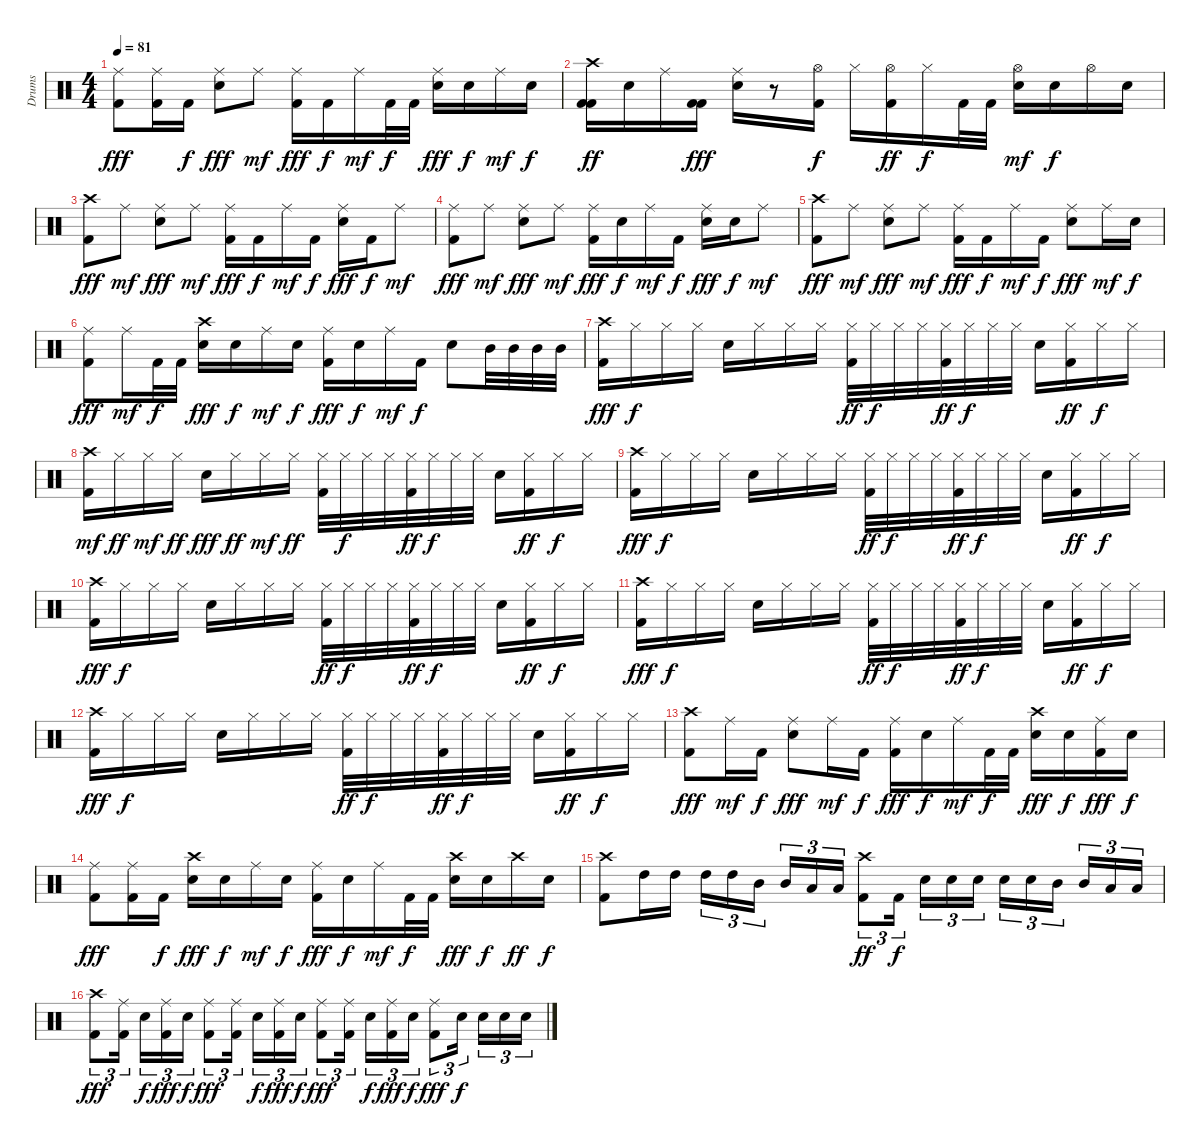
\track ("Drums" "Drums") {instrument percussion}
\staff {score}
\articulation defaults
\ts (4 4)
\tempo 81
\clef neutral
\ks c
("Ride (middle)" "Kick (hit) 2").8{dy fff} ("Ride (middle)" "Kick (hit) 2").16 "Kick (hit) 2".16{dy f} ("Ride (middle)" "Electric Snare (hit)").8{dy fff} "Ride (middle)".8{dy mf} ("Ride (middle)" "Kick (hit) 2").16{dy fff} "Kick (hit) 2".16{dy f} "Ride (middle)".16{dy mf} "Kick (hit) 2".32{dy f} "Kick (hit) 2".32 ("Ride (middle)" "Electric Snare (hit)").16{dy fff} "Electric Snare (hit)".16{dy f} "Ride (middle)".16{dy mf} "Electric Snare (hit)".16{dy f} |
("Kick (hit) 2" "Crash high (hit)" "Kick (hit) 2").16{dy ff} "Electric Snare (hit)".16 "Ride (middle)".16 ("Kick (hit) 2" "Kick (hit) 2").16{dy fff} ("Ride (middle)" "Electric Snare (hit)").16 r.8 ("Hi-Hat (open)" "Kick (hit) 2").16{dy f} "Hi-Hat (closed)".16 ("Hi-Hat (open)" "Kick (hit) 2").16{dy ff} "Hi-Hat (closed)".16{dy f} "Kick (hit) 2".32 "Kick (hit) 2".32 ("Hi-Hat (open)" "Electric Snare (hit)").16{dy mf} "Electric Snare (hit)".16{dy f} "Hi-Hat (open)".16 "Electric Snare (hit)".16 |
("Crash high (hit)" "Kick (hit) 2").8{dy fff} "Ride (middle)".8{dy mf} ("Ride (middle)" "Electric Snare (hit)").8{dy fff} "Ride (middle)".8{dy mf} ("Ride (middle)" "Kick (hit) 2").16{dy fff} "Kick (hit) 2".16{dy f} "Ride (middle)".16{dy mf} "Kick (hit) 2".16{dy f} ("Ride (middle)" "Electric Snare (hit)").16{dy fff} "Kick (hit) 2".16{dy f} "Ride (middle)".8{dy mf} |
("Ride (middle)" "Kick (hit) 2").8{dy fff} "Ride (middle)".8{dy mf} ("Ride (middle)" "Electric Snare (hit)").8{dy fff} "Ride (middle)".8{dy mf} ("Ride (middle)" "Kick (hit) 2").16{dy fff} "Electric Snare (hit)".16{dy f} "Ride (middle)".16{dy mf} "Kick (hit) 2".16{dy f} ("Ride (middle)" "Electric Snare (hit)").16{dy fff} "Electric Snare (hit)".16{dy f} "Ride (middle)".8{dy mf} |
("Crash high (hit)" "Kick (hit) 2").8{dy fff} "Ride (middle)".8{dy mf} ("Ride (middle)" "Electric Snare (hit)").8{dy fff} "Ride (middle)".8{dy mf} ("Ride (middle)" "Kick (hit) 2").16{dy fff} "Kick (hit) 2".16{dy f} "Ride (middle)".16{dy mf} "Kick (hit) 2".16{dy f} ("Ride (middle)" "Electric Snare (hit)").8{dy fff} "Ride (middle)".16{dy mf} "Electric Snare (hit)".16{dy f} |
("Ride (middle)" "Kick (hit) 2").8{dy fff} "Ride (middle)".16{dy mf} "Kick (hit) 2".32{dy f} "Kick (hit) 2".32 ("Crash high (hit)" "Electric Snare (hit)").16{dy fff} "Electric Snare (hit)".16{dy f} "Ride (middle)".16{dy mf} "Electric Snare (hit)".16{dy f} ("Ride (middle)" "Kick (hit) 2").16{dy fff} "Electric Snare (hit)".16{dy f} "Ride (middle)".16{dy mf} "Kick (hit) 2".16{dy f} "Electric Snare (hit)".8 "Mid Tom (hit)".32 "Mid Tom (hit)".32 "Mid Tom (hit)".32 "Mid Tom (hit)".32 |
("Crash high (hit)" "Kick (hit) 2").16{dy fff} "Hi-Hat (closed)".16{dy f} "Hi-Hat (closed)".16 "Hi-Hat (closed)".16 "Electric Snare (hit)".16 "Hi-Hat (closed)".16 "Hi-Hat (closed)".16 "Hi-Hat (closed)".16 ("Hi-Hat (closed)" "Kick (hit) 2").32{dy ff} "Hi-Hat (closed)".32{dy f} "Hi-Hat (closed)".32 "Hi-Hat (closed)".32 ("Hi-Hat (closed)" "Kick (hit) 2").32{dy ff} "Hi-Hat (closed)".32{dy f} "Hi-Hat (closed)".32 "Hi-Hat (closed)".32 "Electric Snare (hit)".16 ("Hi-Hat (closed)" "Kick (hit) 2").16{dy ff} "Hi-Hat (closed)".16{dy f} "Hi-Hat (closed)".16 |
("Kick (hit) 2" "Crash high (hit)").16{dy mf} "Hi-Hat (closed)".16{dy ff} "Hi-Hat (closed)".16{dy mf} "Hi-Hat (closed)".16{dy ff} "Electric Snare (hit)".16{dy fff} "Hi-Hat (closed)".16{dy ff} "Hi-Hat (closed)".16{dy mf} "Hi-Hat (closed)".16{dy ff} ("Hi-Hat (closed)" "Kick (hit) 2").32 "Hi-Hat (closed)".32{dy f} "Hi-Hat (closed)".32 "Hi-Hat (closed)".32 ("Hi-Hat (closed)" "Kick (hit) 2").32{dy ff} "Hi-Hat (closed)".32{dy f} "Hi-Hat (closed)".32 "Hi-Hat (closed)".32 "Electric Snare (hit)".16 ("Hi-Hat (closed)" "Kick (hit) 2").16{dy ff} "Hi-Hat (closed)".16{dy f} "Hi-Hat (closed)".16 |
("Crash high (hit)" "Kick (hit) 2").16{dy fff} "Hi-Hat (closed)".16{dy f} "Hi-Hat (closed)".16 "Hi-Hat (closed)".16 "Electric Snare (hit)".16 "Hi-Hat (closed)".16 "Hi-Hat (closed)".16 "Hi-Hat (closed)".16 ("Hi-Hat (closed)" "Kick (hit) 2").32{dy ff} "Hi-Hat (closed)".32{dy f} "Hi-Hat (closed)".32 "Hi-Hat (closed)".32 ("Hi-Hat (closed)" "Kick (hit) 2").32{dy ff} "Hi-Hat (closed)".32{dy f} "Hi-Hat (closed)".32 "Hi-Hat (closed)".32 "Electric Snare (hit)".16 ("Hi-Hat (closed)" "Kick (hit) 2").16{dy ff} "Hi-Hat (closed)".16{dy f} "Hi-Hat (closed)".16 |
("Crash high (hit)" "Kick (hit) 2").16{dy fff} "Hi-Hat (closed)".16{dy f} "Hi-Hat (closed)".16 "Hi-Hat (closed)".16 "Electric Snare (hit)".16 "Hi-Hat (closed)".16 "Hi-Hat (closed)".16 "Hi-Hat (closed)".16 ("Hi-Hat (closed)" "Kick (hit) 2").32{dy ff} "Hi-Hat (closed)".32{dy f} "Hi-Hat (closed)".32 "Hi-Hat (closed)".32 ("Hi-Hat (closed)" "Kick (hit) 2").32{dy ff} "Hi-Hat (closed)".32{dy f} "Hi-Hat (closed)".32 "Hi-Hat (closed)".32 "Electric Snare (hit)".16 ("Hi-Hat (closed)" "Kick (hit) 2").16{dy ff} "Hi-Hat (closed)".16{dy f} "Hi-Hat (closed)".16 |
("Crash high (hit)" "Kick (hit) 2").16{dy fff} "Hi-Hat (closed)".16{dy f} "Hi-Hat (closed)".16 "Hi-Hat (closed)".16 "Electric Snare (hit)".16 "Hi-Hat (closed)".16 "Hi-Hat (closed)".16 "Hi-Hat (closed)".16 ("Hi-Hat (closed)" "Kick (hit) 2").32{dy ff} "Hi-Hat (closed)".32{dy f} "Hi-Hat (closed)".32 "Hi-Hat (closed)".32 ("Hi-Hat (closed)" "Kick (hit) 2").32{dy ff} "Hi-Hat (closed)".32{dy f} "Hi-Hat (closed)".32 "Hi-Hat (closed)".32 "Electric Snare (hit)".16 ("Hi-Hat (closed)" "Kick (hit) 2").16{dy ff} "Hi-Hat (closed)".16{dy f} "Hi-Hat (closed)".16 |
("Crash high (hit)" "Kick (hit) 2").16{dy fff} "Hi-Hat (closed)".16{dy f} "Hi-Hat (closed)".16 "Hi-Hat (closed)".16 "Electric Snare (hit)".16 "Hi-Hat (closed)".16 "Hi-Hat (closed)".16 "Hi-Hat (closed)".16 ("Hi-Hat (closed)" "Kick (hit) 2").32{dy ff} "Hi-Hat (closed)".32{dy f} "Hi-Hat (closed)".32 "Hi-Hat (closed)".32 ("Hi-Hat (closed)" "Kick (hit) 2").32{dy ff} "Hi-Hat (closed)".32{dy f} "Hi-Hat (closed)".32 "Hi-Hat (closed)".32 "Electric Snare (hit)".16 ("Hi-Hat (closed)" "Kick (hit) 2").16{dy ff} "Hi-Hat (closed)".16{dy f} "Hi-Hat (closed)".16 |
("Crash high (hit)" "Kick (hit) 2").8{dy fff} "Ride (middle)".16{dy mf} "Kick (hit) 2".16{dy f} ("Ride (middle)" "Electric Snare (hit)").8{dy fff} "Ride (middle)".16{dy mf} "Kick (hit) 2".16{dy f} ("Ride (middle)" "Kick (hit) 2").16{dy fff} "Electric Snare (hit)".16{dy f} "Ride (middle)".16{dy mf} "Kick (hit) 2".32{dy f} "Kick (hit) 2".32 ("Crash high (hit)" "Electric Snare (hit)").16{dy fff} "Electric Snare (hit)".16{dy f} ("Ride (middle)" "Kick (hit) 2").16{dy fff} "Electric Snare (hit)".16{dy f} |
("Ride (middle)" "Kick (hit) 2").8{dy fff} ("Ride (middle)" "Kick (hit) 2").16 "Kick (hit) 2".16{dy f} ("Crash high (hit)" "Electric Snare (hit)").16{dy fff} "Electric Snare (hit)".16{dy f} "Ride (middle)".16{dy mf} "Electric Snare (hit)".16{dy f} ("Ride (middle)" "Kick (hit) 2").16{dy fff} "Electric Snare (hit)".16{dy f} "Ride (middle)".16{dy mf} "Kick (hit) 2".32{dy f} "Kick (hit) 2".32 ("Crash high (hit)" "Electric Snare (hit)").16{dy fff} "Electric Snare (hit)".16{dy f} "Crash high (hit)".16{dy ff} "Electric Snare (hit)".16{dy f} |
("Crash high (hit)" "Kick (hit) 2").8 "High Tom (hit)".16 "High Tom (hit)".16 "High Tom (hit)".16{tu (3 2)} "High Tom (hit)".16{tu (3 2)} "Mid Tom (hit)".16{tu (3 2)} "Mid Tom (hit)".16{tu (3 2)} "Low Tom (hit)".16{tu (3 2)} "Low Tom (hit)".16{tu (3 2)} ("Crash high (hit)" "Kick (hit) 2").8{tu (3 2) dy ff} "Kick (hit) 2".16{tu (3 2) dy f} "Electric Snare (hit)".16{tu (3 2)} "Electric Snare (hit)".16{tu (3 2)} "Electric Snare (hit)".16{tu (3 2)} "Electric Snare (hit)".16{tu (3 2)} "Electric Snare (hit)".16{tu (3 2)} "Mid Tom (hit)".16{tu (3 2)} "Mid Tom (hit)".16{tu (3 2)} "Low Tom (hit)".16{tu (3 2)} "Low Tom (hit)".16{tu (3 2)} |
("Crash high (hit)" "Kick (hit) 2").8{tu (3 2) dy fff} ("Ride (middle)" "Kick (hit) 2").16{tu (3 2)} "Electric Snare (hit)".16{tu (3 2) dy f} ("Ride (middle)" "Kick (hit) 2").16{tu (3 2) dy fff} "Electric Snare (hit)".16{tu (3 2) dy f} ("Ride (middle)" "Kick (hit) 2").8{tu (3 2) dy fff} ("Ride (middle)" "Kick (hit) 2").16{tu (3 2)} "Electric Snare (hit)".16{tu (3 2) dy f} ("Ride (middle)" "Kick (hit) 2").16{tu (3 2) dy fff} "Electric Snare (hit)".16{tu (3 2) dy f} ("Ride (middle)" "Kick (hit) 2").8{tu (3 2) dy fff} ("Ride (middle)" "Kick (hit) 2").16{tu (3 2)} "Electric Snare (hit)".16{tu (3 2) dy f} ("Ride (middle)" "Kick (hit) 2").16{tu (3 2) dy fff} "Electric Snare (hit)".16{tu (3 2) dy f} ("Ride (middle)" "Kick (hit) 2").8{tu (3 2) dy fff} "Electric Snare (hit)".16{tu (3 2) dy f} "Electric Snare (hit)".16{tu (3 2)} "Electric Snare (hit)".16{tu (3 2)} "Electric Snare (hit)".16{tu (3 2)}
